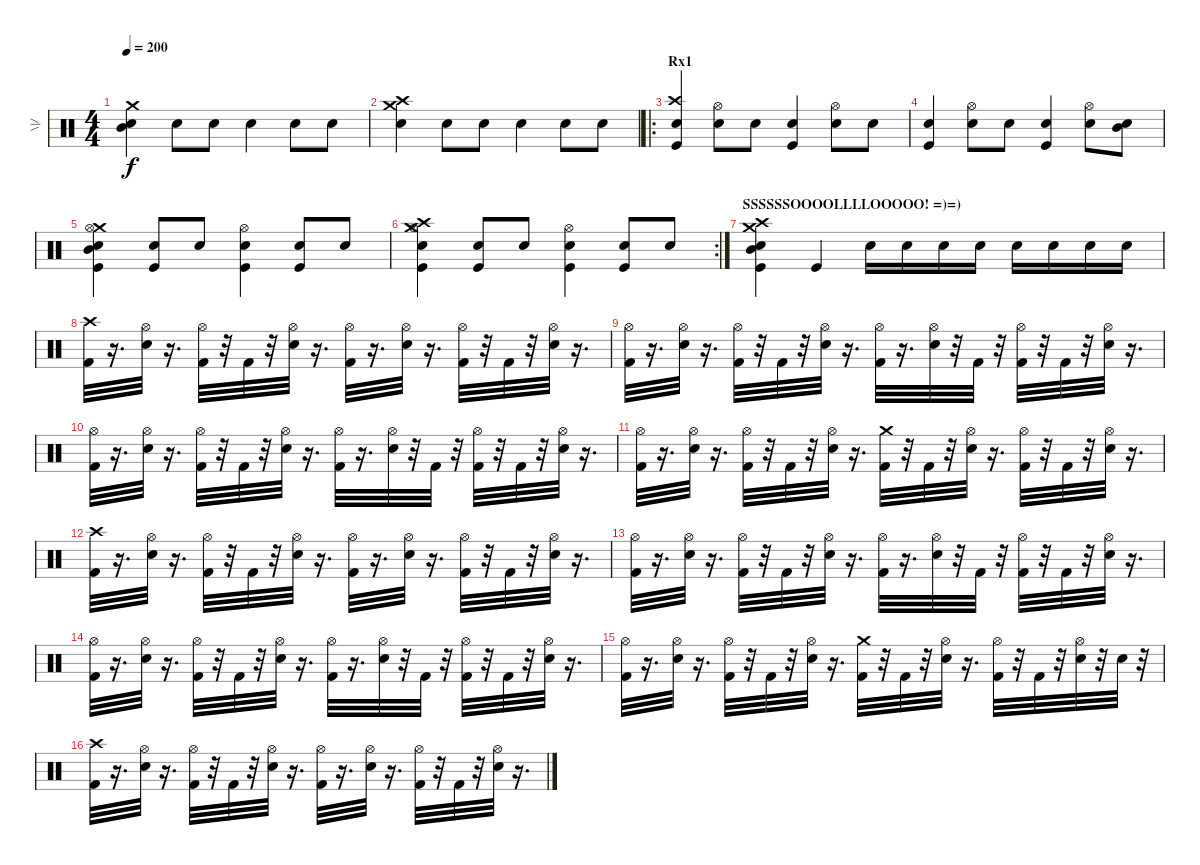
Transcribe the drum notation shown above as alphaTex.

\track ("  \\|/" "  \\|/") {instrument percussion}
\staff {score}
\articulation defaults
\ts (4 4)
\tempo 200
\clef neutral
\ks c
("Crash medium (hit)" "Mid Tom (hit)" "Snare (hit) 2").4{dy f} "Snare (hit) 2".8 "Snare (hit) 2".8 "Snare (hit) 2".4 "Snare (hit) 2".8 "Snare (hit) 2".8 |
("Crash high (hit)" "Crash medium (hit)" "Snare (hit) 2").4 "Snare (hit) 2".8 "Snare (hit) 2".8 "Snare (hit) 2".4 "Snare (hit) 2".8 "Snare (hit) 2".8 |
\ro
\section ("" "Rx1")
("Crash high (hit)" "Snare (hit) 2" "Kick (hit)").4 ("Hi-Hat (open)" "Snare (hit) 2").8 "Snare (hit) 2".8 ("Snare (hit) 2" "Kick (hit)").4 ("Hi-Hat (open)" "Snare (hit) 2").8 "Snare (hit) 2".8 |
("Snare (hit) 2" "Kick (hit)").4 ("Hi-Hat (open)" "Snare (hit) 2").8 "Snare (hit) 2".8 ("Snare (hit) 2" "Kick (hit)").4 ("Hi-Hat (open)" "Snare (hit) 2").8 ("Mid Tom (hit)" "Snare (hit) 2").8 |
("Crash medium (hit)" "Mid Tom (hit)" "Hi-Hat (open)" "Snare (hit) 2" "Kick (hit)").4 ("Snare (hit) 2" "Kick (hit)").8 "Snare (hit) 2".8 ("Hi-Hat (open)" "Snare (hit) 2" "Kick (hit)").4 ("Snare (hit) 2" "Kick (hit)").8 "Snare (hit) 2".8 |
\rc 2
("Crash high (hit)" "Crash medium (hit)" "Hi-Hat (open)" "Snare (hit) 2" "Kick (hit)").4 ("Snare (hit) 2" "Kick (hit)").8 "Snare (hit) 2".8 ("Hi-Hat (open)" "Snare (hit) 2" "Kick (hit)").4 ("Snare (hit) 2" "Kick (hit)").8 "Snare (hit) 2".8 |
\section ("" "SSSSSSOOOOLLLLOOOOO! =)=)")
("Crash high (hit)" "Crash medium (hit)" "Mid Tom (hit)" "Snare (hit) 2" "Kick (hit)").4 "Kick (hit)".4 "Snare (hit) 2".16 "Snare (hit) 2".16 "Snare (hit) 2".16 "Snare (hit) 2".16 "Snare (hit) 2".16 "Snare (hit) 2".16 "Snare (hit) 2".16 "Snare (hit) 2".16 |
("Kick (hit) 2" "Crash high (hit)").32 r.16{d} ("Snare (hit) 2" "Hi-Hat (open)").32 r.16{d} ("Kick (hit) 2" "Hi-Hat (open)").32 r.32 "Kick (hit) 2".32 r.32 ("Hi-Hat (open)" "Snare (hit) 2").32 r.16{d} ("Kick (hit) 2" "Hi-Hat (open)").32 r.16{d} ("Snare (hit) 2" "Hi-Hat (open)").32 r.16{d} ("Kick (hit) 2" "Hi-Hat (open)").32 r.32 "Kick (hit) 2".32 r.32 ("Snare (hit) 2" "Hi-Hat (open)").32 r.16{d} |
("Hi-Hat (open)" "Kick (hit) 2").32 r.16{d} ("Hi-Hat (open)" "Snare (hit) 2").32 r.16{d} ("Hi-Hat (open)" "Kick (hit) 2").32 r.32 "Kick (hit) 2".32 r.32 ("Hi-Hat (open)" "Snare (hit) 2").32 r.16{d} ("Hi-Hat (open)" "Kick (hit) 2").32 r.16{d} ("Hi-Hat (open)" "Snare (hit) 2").32 r.32 "Kick (hit) 2".32 r.32 ("Hi-Hat (open)" "Kick (hit) 2").32 r.32 "Kick (hit) 2".32 r.32 ("Snare (hit) 2" "Hi-Hat (open)").32 r.16{d} |
("Hi-Hat (open)" "Kick (hit) 2").32 r.16{d} ("Snare (hit) 2" "Hi-Hat (open)").32 r.16{d} ("Kick (hit) 2" "Hi-Hat (open)").32 r.32 "Kick (hit) 2".32 r.32 ("Hi-Hat (open)" "Snare (hit) 2").32 r.16{d} ("Kick (hit) 2" "Hi-Hat (open)").32 r.16{d} ("Snare (hit) 2" "Hi-Hat (open)").32 r.32 "Kick (hit) 2".32 r.32 ("Hi-Hat (open)" "Kick (hit) 2").32 r.32 "Kick (hit) 2".32 r.32 ("Snare (hit) 2" "Hi-Hat (open)").32 r.16{d} |
("Kick (hit) 2" "Hi-Hat (open)").32 r.16{d} ("Hi-Hat (open)" "Snare (hit) 2").32 r.16{d} ("Kick (hit) 2" "Hi-Hat (open)").32 r.32 "Kick (hit) 2".32 r.32 ("Snare (hit) 2" "Hi-Hat (open)").32 r.16{d} ("Crash medium (hit)" "Kick (hit) 2").32 r.32 "Kick (hit) 2".32 r.32 ("Hi-Hat (open)" "Snare (hit) 2").32 r.16{d} ("Hi-Hat (open)" "Kick (hit) 2").32 r.32 "Kick (hit) 2".32 r.32 ("Snare (hit) 2" "Hi-Hat (open)").32 r.16{d} |
("Crash high (hit)" "Kick (hit) 2").32 r.16{d} ("Snare (hit) 2" "Hi-Hat (open)").32 r.16{d} ("Kick (hit) 2" "Hi-Hat (open)").32 r.32 "Kick (hit) 2".32 r.32 ("Hi-Hat (open)" "Snare (hit) 2").32 r.16{d} ("Kick (hit) 2" "Hi-Hat (open)").32 r.16{d} ("Hi-Hat (open)" "Snare (hit) 2").32 r.16{d} ("Kick (hit) 2" "Hi-Hat (open)").32 r.32 "Kick (hit) 2".32 r.32 ("Snare (hit) 2" "Hi-Hat (open)").32 r.16{d} |
("Hi-Hat (open)" "Kick (hit) 2").32 r.16{d} ("Snare (hit) 2" "Hi-Hat (open)").32 r.16{d} ("Hi-Hat (open)" "Kick (hit) 2").32 r.32 "Kick (hit) 2".32 r.32 ("Snare (hit) 2" "Hi-Hat (open)").32 r.16{d} ("Hi-Hat (open)" "Kick (hit) 2").32 r.16{d} ("Snare (hit) 2" "Hi-Hat (open)").32 r.32 "Kick (hit) 2".32 r.32 ("Kick (hit) 2" "Hi-Hat (open)").32 r.32 "Kick (hit) 2".32 r.32 ("Hi-Hat (open)" "Snare (hit) 2").32 r.16{d} |
("Hi-Hat (open)" "Kick (hit) 2").32 r.16{d} ("Hi-Hat (open)" "Snare (hit) 2").32 r.16{d} ("Hi-Hat (open)" "Kick (hit) 2").32 r.32 "Kick (hit) 2".32 r.32 ("Hi-Hat (open)" "Snare (hit) 2").32 r.16{d} ("Kick (hit) 2" "Hi-Hat (open)").32 r.16{d} ("Hi-Hat (open)" "Snare (hit) 2").32 r.32 "Kick (hit) 2".32 r.32 ("Hi-Hat (open)" "Kick (hit) 2").32 r.32 "Kick (hit) 2".32 r.32 ("Snare (hit) 2" "Hi-Hat (open)").32 r.16{d} |
("Hi-Hat (open)" "Kick (hit) 2").32 r.16{d} ("Snare (hit) 2" "Hi-Hat (open)").32 r.16{d} ("Hi-Hat (open)" "Kick (hit) 2").32 r.32 "Kick (hit) 2".32 r.32 ("Snare (hit) 2" "Hi-Hat (open)").32 r.16{d} ("Crash medium (hit)" "Kick (hit) 2").32 r.32 "Kick (hit) 2".32 r.32 ("Hi-Hat (open)" "Snare (hit) 2").32 r.16{d} ("Kick (hit) 2" "Hi-Hat (open)").32 r.32 "Kick (hit) 2".32 r.32 ("Snare (hit) 2" "Hi-Hat (open)").32 r.32 "Snare (hit) 2".32 r.32 |
\section ("" "")
("Kick (hit) 2" "Crash high (hit)").32 r.16{d} ("Snare (hit) 2" "Hi-Hat (open)").32 r.16{d} ("Kick (hit) 2" "Hi-Hat (open)").32 r.32 "Kick (hit) 2".32 r.32 ("Hi-Hat (open)" "Snare (hit) 2").32 r.16{d} ("Kick (hit) 2" "Hi-Hat (open)").32 r.16{d} ("Snare (hit) 2" "Hi-Hat (open)").32 r.16{d} ("Kick (hit) 2" "Hi-Hat (open)").32 r.32 "Kick (hit) 2".32 r.32 ("Snare (hit) 2" "Hi-Hat (open)").32 r.16{d}
